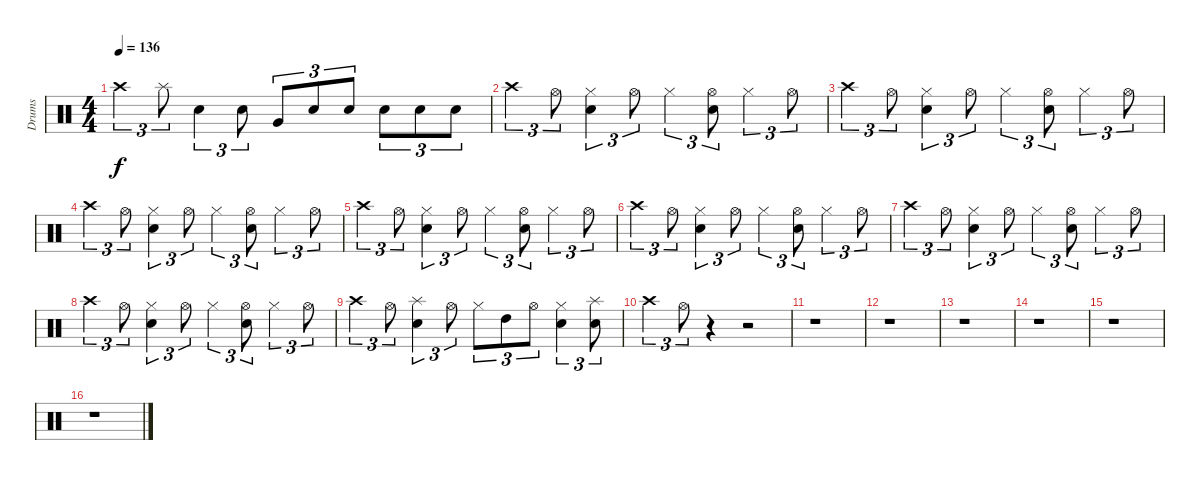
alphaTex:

\track ("Drums" "Drums") {instrument percussion}
\staff {score}
\articulation defaults
\ts (4 4)
\tempo 136
\clef neutral
\ks c "Crash high (hit)".4{tu (3 2) dy f} "Splash (hit)".8{tu (3 2)} "Snare (hit) 2".4{tu (3 2)} "Snare (hit) 2".8{tu (3 2)} "Very Low Tom (hit)".8{tu (3 2)} "Snare (hit) 2".8{tu (3 2)} "Snare (hit) 2".8{tu (3 2)} "Snare (hit) 2".8{tu (3 2)} "Snare (hit) 2".8{tu (3 2)} "Snare (hit) 2".8{tu (3 2)}
|
"Crash high (hit)".4{tu (3 2)} "Hi-Hat (open)".8{tu (3 2)} ("Hi-Hat (closed)" "Snare (hit) 2").4{tu (3 2)} "Hi-Hat (open)".8{tu (3 2)} "Hi-Hat (closed)".4{tu (3 2)} ("Hi-Hat (open)" "Snare (hit) 2").8{tu (3 2)} "Hi-Hat (closed)".4{tu (3 2)} "Hi-Hat (open)".8{tu (3 2)} |
"Crash high (hit)".4{tu (3 2)} "Hi-Hat (open)".8{tu (3 2)} ("Hi-Hat (closed)" "Snare (hit) 2").4{tu (3 2)} "Hi-Hat (open)".8{tu (3 2)} "Hi-Hat (closed)".4{tu (3 2)} ("Hi-Hat (open)" "Snare (hit) 2").8{tu (3 2)} "Hi-Hat (closed)".4{tu (3 2)} "Hi-Hat (open)".8{tu (3 2)} |
"Crash high (hit)".4{tu (3 2)} "Hi-Hat (open)".8{tu (3 2)} ("Hi-Hat (closed)" "Snare (hit) 2").4{tu (3 2)} "Hi-Hat (open)".8{tu (3 2)} "Hi-Hat (closed)".4{tu (3 2)} ("Hi-Hat (open)" "Snare (hit) 2").8{tu (3 2)} "Hi-Hat (closed)".4{tu (3 2)} "Hi-Hat (open)".8{tu (3 2)} |
"Crash high (hit)".4{tu (3 2)} "Hi-Hat (open)".8{tu (3 2)} ("Hi-Hat (closed)" "Snare (hit) 2").4{tu (3 2)} "Hi-Hat (open)".8{tu (3 2)} "Hi-Hat (closed)".4{tu (3 2)} ("Hi-Hat (open)" "Snare (hit) 2").8{tu (3 2)} "Hi-Hat (closed)".4{tu (3 2)} "Hi-Hat (open)".8{tu (3 2)} |
"Crash high (hit)".4{tu (3 2)} "Hi-Hat (open)".8{tu (3 2)} ("Hi-Hat (closed)" "Snare (hit) 2").4{tu (3 2)} "Hi-Hat (open)".8{tu (3 2)} "Hi-Hat (closed)".4{tu (3 2)} ("Hi-Hat (open)" "Snare (hit) 2").8{tu (3 2)} "Hi-Hat (closed)".4{tu (3 2)} "Hi-Hat (open)".8{tu (3 2)} |
"Crash high (hit)".4{tu (3 2)} "Hi-Hat (open)".8{tu (3 2)} ("Hi-Hat (closed)" "Snare (hit) 2").4{tu (3 2)} "Hi-Hat (open)".8{tu (3 2)} "Hi-Hat (closed)".4{tu (3 2)} ("Hi-Hat (open)" "Snare (hit) 2").8{tu (3 2)} "Hi-Hat (closed)".4{tu (3 2)} "Hi-Hat (open)".8{tu (3 2)} |
"Crash high (hit)".4{tu (3 2)} "Hi-Hat (open)".8{tu (3 2)} ("Hi-Hat (closed)" "Snare (hit) 2").4{tu (3 2)} "Hi-Hat (open)".8{tu (3 2)} "Hi-Hat (closed)".4{tu (3 2)} ("Hi-Hat (open)" "Snare (hit) 2").8{tu (3 2)} "Hi-Hat (closed)".4{tu (3 2)} "Hi-Hat (open)".8{tu (3 2)} |
"Crash high (hit)".4{tu (3 2)} "Hi-Hat (open)".8{tu (3 2)} ("Splash (hit)" "Snare (hit) 2").4{tu (3 2)} "Hi-Hat (open)".8{tu (3 2)} "Hi-Hat (closed)".8{tu (3 2)} "High Tom (hit)".8{tu (3 2)} "Hi-Hat (open)".8{tu (3 2)} ("Hi-Hat (closed)" "Snare (hit) 2").4{tu (3 2)} ("Splash (hit)" "Snare (hit) 2").8{tu (3 2)} |
"Crash high (hit)".4{tu (3 2)} "Hi-Hat (open)".8{tu (3 2)} r.4 r.2 |
r.1 |
r.1 |
r.1 |
r.1 |
r.1 |
r.1
